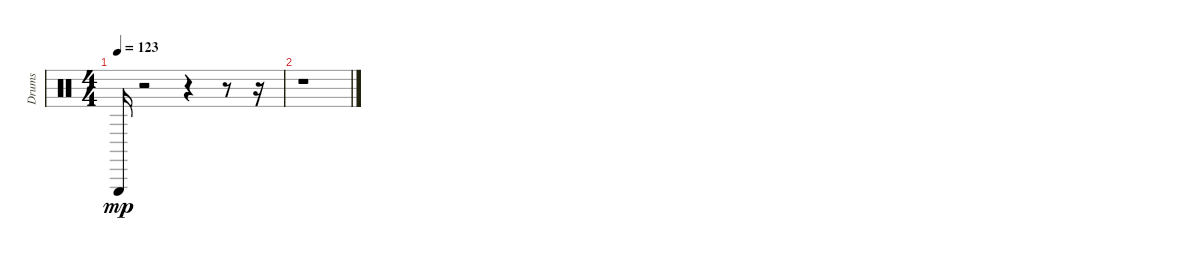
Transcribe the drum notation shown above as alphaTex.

\track ("Drums" "Drums") {instrument percussion}
\staff {score}
\articulation defaults
\ts (4 4)
\tempo 123
\clef neutral
\ks c "Triangle (hit)".16{dy mp}
r.2 r.4 r.8 r.16 |
r.1
